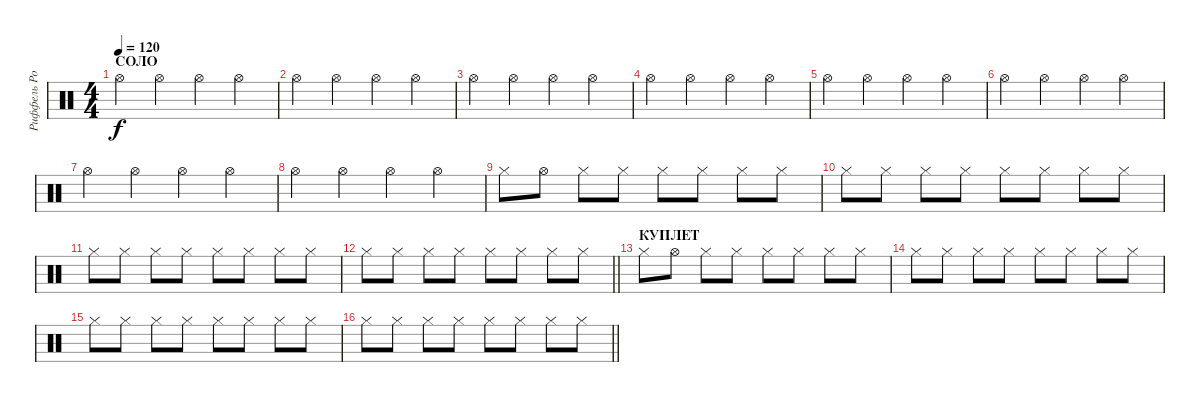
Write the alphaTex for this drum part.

\track ("Риффель Роман (хэты)" "Риффель Ро") {instrument percussion}
\staff {score}
\articulation defaults
\ts (4 4)
\section ("" "СОЛО")
\tempo 120
\clef neutral
\ks c "Hi-Hat (open)".4{dy f} "Hi-Hat (open)".4 "Hi-Hat (open)".4 "Hi-Hat (open)".4
|
"Hi-Hat (open)".4 "Hi-Hat (open)".4 "Hi-Hat (open)".4 "Hi-Hat (open)".4 |
"Hi-Hat (open)".4 "Hi-Hat (open)".4 "Hi-Hat (open)".4 "Hi-Hat (open)".4 |
"Hi-Hat (open)".4 "Hi-Hat (open)".4 "Hi-Hat (open)".4 "Hi-Hat (open)".4 |
"Hi-Hat (open)".4 "Hi-Hat (open)".4 "Hi-Hat (open)".4 "Hi-Hat (open)".4 |
"Hi-Hat (open)".4 "Hi-Hat (open)".4 "Hi-Hat (open)".4 "Hi-Hat (open)".4 |
"Hi-Hat (open)".4 "Hi-Hat (open)".4 "Hi-Hat (open)".4 "Hi-Hat (open)".4 |
"Hi-Hat (open)".4 "Hi-Hat (open)".4 "Hi-Hat (open)".4 "Hi-Hat (open)".4 |
"Hi-Hat (closed)".8 "Hi-Hat (open)".8 "Hi-Hat (closed)".8 "Hi-Hat (closed)".8 "Hi-Hat (closed)".8 "Hi-Hat (closed)".8 "Hi-Hat (closed)".8 "Hi-Hat (closed)".8 |
"Hi-Hat (closed)".8 "Hi-Hat (closed)".8 "Hi-Hat (closed)".8 "Hi-Hat (closed)".8 "Hi-Hat (closed)".8 "Hi-Hat (closed)".8 "Hi-Hat (closed)".8 "Hi-Hat (closed)".8 |
"Hi-Hat (closed)".8 "Hi-Hat (closed)".8 "Hi-Hat (closed)".8 "Hi-Hat (closed)".8 "Hi-Hat (closed)".8 "Hi-Hat (closed)".8 "Hi-Hat (closed)".8 "Hi-Hat (closed)".8 |
\barLineRight lightlight "Hi-Hat (closed)".8 "Hi-Hat (closed)".8 "Hi-Hat (closed)".8 "Hi-Hat (closed)".8 "Hi-Hat (closed)".8 "Hi-Hat (closed)".8 "Hi-Hat (closed)".8 "Hi-Hat (closed)".8
|
\section ("" "КУПЛЕТ")
"Hi-Hat (closed)".8 "Hi-Hat (open)".8 "Hi-Hat (closed)".8 "Hi-Hat (closed)".8 "Hi-Hat (closed)".8 "Hi-Hat (closed)".8 "Hi-Hat (closed)".8 "Hi-Hat (closed)".8 |
"Hi-Hat (closed)".8 "Hi-Hat (closed)".8 "Hi-Hat (closed)".8 "Hi-Hat (closed)".8 "Hi-Hat (closed)".8 "Hi-Hat (closed)".8 "Hi-Hat (closed)".8 "Hi-Hat (closed)".8 |
"Hi-Hat (closed)".8 "Hi-Hat (closed)".8 "Hi-Hat (closed)".8 "Hi-Hat (closed)".8 "Hi-Hat (closed)".8 "Hi-Hat (closed)".8 "Hi-Hat (closed)".8 "Hi-Hat (closed)".8 |
\barLineRight lightlight "Hi-Hat (closed)".8 "Hi-Hat (closed)".8 "Hi-Hat (closed)".8 "Hi-Hat (closed)".8 "Hi-Hat (closed)".8 "Hi-Hat (closed)".8 "Hi-Hat (closed)".8 "Hi-Hat (closed)".8
